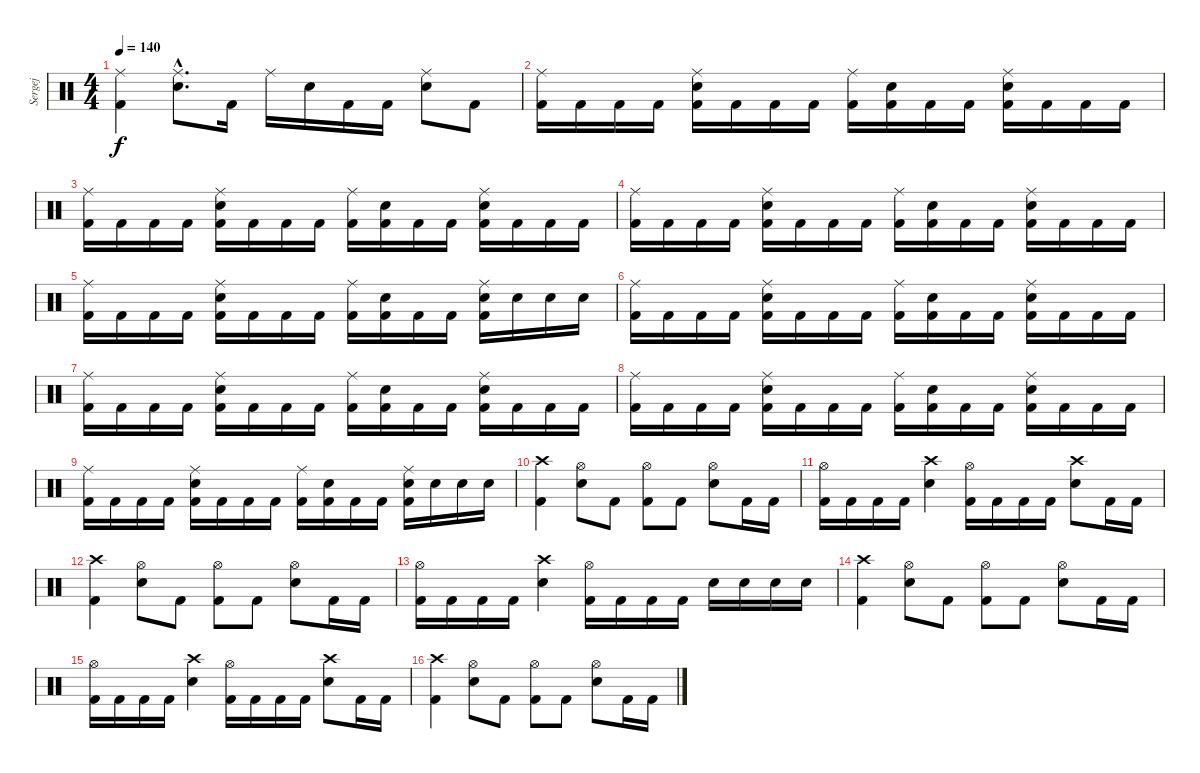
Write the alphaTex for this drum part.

\track ("Sergej" "Sergej") {instrument percussion}
\staff {score}
\articulation defaults
\ts (4 4)
\tempo 140
\clef neutral
\ks c
("Ride (middle)" "Kick (hit) 2").4{dy f} ("Ride (middle)"{hac} "Snare (hit) 2"{hac}).8{d} "Kick (hit) 2".16 "Ride (middle)".16 "Snare (hit) 2".16 "Kick (hit) 2".16 "Kick (hit) 2".16 ("Ride (middle)" "Snare (hit) 2").8 "Kick (hit) 2".8 |
("Ride (middle)" "Kick (hit) 2").16 "Kick (hit) 2".16 "Kick (hit) 2".16 "Kick (hit) 2".16 ("Ride (middle)" "Snare (hit) 2" "Kick (hit) 2").16 "Kick (hit) 2".16 "Kick (hit) 2".16 "Kick (hit) 2".16 ("Ride (middle)" "Kick (hit) 2").16 ("Snare (hit) 2" "Kick (hit) 2").16 "Kick (hit) 2".16 "Kick (hit) 2".16 ("Ride (middle)" "Snare (hit) 2" "Kick (hit) 2").16 "Kick (hit) 2".16 "Kick (hit) 2".16 "Kick (hit) 2".16 |
("Ride (middle)" "Kick (hit) 2").16 "Kick (hit) 2".16 "Kick (hit) 2".16 "Kick (hit) 2".16 ("Ride (middle)" "Snare (hit) 2" "Kick (hit) 2").16 "Kick (hit) 2".16 "Kick (hit) 2".16 "Kick (hit) 2".16 ("Ride (middle)" "Kick (hit) 2").16 ("Snare (hit) 2" "Kick (hit) 2").16 "Kick (hit) 2".16 "Kick (hit) 2".16 ("Ride (middle)" "Snare (hit) 2" "Kick (hit) 2").16 "Kick (hit) 2".16 "Kick (hit) 2".16 "Kick (hit) 2".16 |
("Ride (middle)" "Kick (hit) 2").16 "Kick (hit) 2".16 "Kick (hit) 2".16 "Kick (hit) 2".16 ("Ride (middle)" "Snare (hit) 2" "Kick (hit) 2").16 "Kick (hit) 2".16 "Kick (hit) 2".16 "Kick (hit) 2".16 ("Ride (middle)" "Kick (hit) 2").16 ("Snare (hit) 2" "Kick (hit) 2").16 "Kick (hit) 2".16 "Kick (hit) 2".16 ("Ride (middle)" "Snare (hit) 2" "Kick (hit) 2").16 "Kick (hit) 2".16 "Kick (hit) 2".16 "Kick (hit) 2".16 |
("Ride (middle)" "Kick (hit) 2").16 "Kick (hit) 2".16 "Kick (hit) 2".16 "Kick (hit) 2".16 ("Ride (middle)" "Snare (hit) 2" "Kick (hit) 2").16 "Kick (hit) 2".16 "Kick (hit) 2".16 "Kick (hit) 2".16 ("Ride (middle)" "Kick (hit) 2").16 ("Snare (hit) 2" "Kick (hit) 2").16 "Kick (hit) 2".16 "Kick (hit) 2".16 ("Ride (middle)" "Snare (hit) 2" "Kick (hit) 2").16 "Snare (hit) 2".16 "Snare (hit) 2".16 "Snare (hit) 2".16 |
("Ride (middle)" "Kick (hit) 2").16 "Kick (hit) 2".16 "Kick (hit) 2".16 "Kick (hit) 2".16 ("Ride (middle)" "Snare (hit) 2" "Kick (hit) 2").16 "Kick (hit) 2".16 "Kick (hit) 2".16 "Kick (hit) 2".16 ("Ride (middle)" "Kick (hit) 2").16 ("Snare (hit) 2" "Kick (hit) 2").16 "Kick (hit) 2".16 "Kick (hit) 2".16 ("Ride (middle)" "Snare (hit) 2" "Kick (hit) 2").16 "Kick (hit) 2".16 "Kick (hit) 2".16 "Kick (hit) 2".16 |
("Ride (middle)" "Kick (hit) 2").16 "Kick (hit) 2".16 "Kick (hit) 2".16 "Kick (hit) 2".16 ("Ride (middle)" "Snare (hit) 2" "Kick (hit) 2").16 "Kick (hit) 2".16 "Kick (hit) 2".16 "Kick (hit) 2".16 ("Ride (middle)" "Kick (hit) 2").16 ("Snare (hit) 2" "Kick (hit) 2").16 "Kick (hit) 2".16 "Kick (hit) 2".16 ("Ride (middle)" "Snare (hit) 2" "Kick (hit) 2").16 "Kick (hit) 2".16 "Kick (hit) 2".16 "Kick (hit) 2".16 |
("Ride (middle)" "Kick (hit) 2").16 "Kick (hit) 2".16 "Kick (hit) 2".16 "Kick (hit) 2".16 ("Ride (middle)" "Snare (hit) 2" "Kick (hit) 2").16 "Kick (hit) 2".16 "Kick (hit) 2".16 "Kick (hit) 2".16 ("Ride (middle)" "Kick (hit) 2").16 ("Snare (hit) 2" "Kick (hit) 2").16 "Kick (hit) 2".16 "Kick (hit) 2".16 ("Ride (middle)" "Snare (hit) 2" "Kick (hit) 2").16 "Kick (hit) 2".16 "Kick (hit) 2".16 "Kick (hit) 2".16 |
("Ride (middle)" "Kick (hit) 2").16 "Kick (hit) 2".16 "Kick (hit) 2".16 "Kick (hit) 2".16 ("Ride (middle)" "Snare (hit) 2" "Kick (hit) 2").16 "Kick (hit) 2".16 "Kick (hit) 2".16 "Kick (hit) 2".16 ("Ride (middle)" "Kick (hit) 2").16 ("Snare (hit) 2" "Kick (hit) 2").16 "Kick (hit) 2".16 "Kick (hit) 2".16 ("Ride (middle)" "Snare (hit) 2" "Kick (hit) 2").16 "Snare (hit) 2".16 "Snare (hit) 2".16 "Snare (hit) 2".16 |
("Crash high (hit)" "Kick (hit) 2").4 ("Hi-Hat (open)" "Snare (hit) 2").8 "Kick (hit) 2".8 ("Hi-Hat (open)" "Kick (hit) 2").8 "Kick (hit) 2".8 ("Hi-Hat (open)" "Snare (hit) 2").8 "Kick (hit) 2".16 "Kick (hit) 2".16 |
("Hi-Hat (open)" "Kick (hit) 2").16 "Kick (hit) 2".16 "Kick (hit) 2".16 "Kick (hit) 2".16 ("Crash high (hit)" "Snare (hit) 2").4 ("Hi-Hat (open)" "Kick (hit) 2").16 "Kick (hit) 2".16 "Kick (hit) 2".16 "Kick (hit) 2".16 ("Crash high (hit)" "Snare (hit) 2").8 "Kick (hit) 2".16 "Kick (hit) 2".16 |
("Crash high (hit)" "Kick (hit) 2").4 ("Hi-Hat (open)" "Snare (hit) 2").8 "Kick (hit) 2".8 ("Hi-Hat (open)" "Kick (hit) 2").8 "Kick (hit) 2".8 ("Hi-Hat (open)" "Snare (hit) 2").8 "Kick (hit) 2".16 "Kick (hit) 2".16 |
("Hi-Hat (open)" "Kick (hit) 2").16 "Kick (hit) 2".16 "Kick (hit) 2".16 "Kick (hit) 2".16 ("Crash high (hit)" "Snare (hit) 2").4 ("Hi-Hat (open)" "Kick (hit) 2").16 "Kick (hit) 2".16 "Kick (hit) 2".16 "Kick (hit) 2".16 "Snare (hit) 2".16 "Snare (hit) 2".16 "Snare (hit) 2".16 "Snare (hit) 2".16 |
("Crash high (hit)" "Kick (hit) 2").4 ("Hi-Hat (open)" "Snare (hit) 2").8 "Kick (hit) 2".8 ("Hi-Hat (open)" "Kick (hit) 2").8 "Kick (hit) 2".8 ("Hi-Hat (open)" "Snare (hit) 2").8 "Kick (hit) 2".16 "Kick (hit) 2".16 |
("Hi-Hat (open)" "Kick (hit) 2").16 "Kick (hit) 2".16 "Kick (hit) 2".16 "Kick (hit) 2".16 ("Crash high (hit)" "Snare (hit) 2").4 ("Hi-Hat (open)" "Kick (hit) 2").16 "Kick (hit) 2".16 "Kick (hit) 2".16 "Kick (hit) 2".16 ("Crash high (hit)" "Snare (hit) 2").8 "Kick (hit) 2".16 "Kick (hit) 2".16 |
("Crash high (hit)" "Kick (hit) 2").4 ("Hi-Hat (open)" "Snare (hit) 2").8 "Kick (hit) 2".8 ("Hi-Hat (open)" "Kick (hit) 2").8 "Kick (hit) 2".8 ("Hi-Hat (open)" "Snare (hit) 2").8 "Kick (hit) 2".16 "Kick (hit) 2".16
